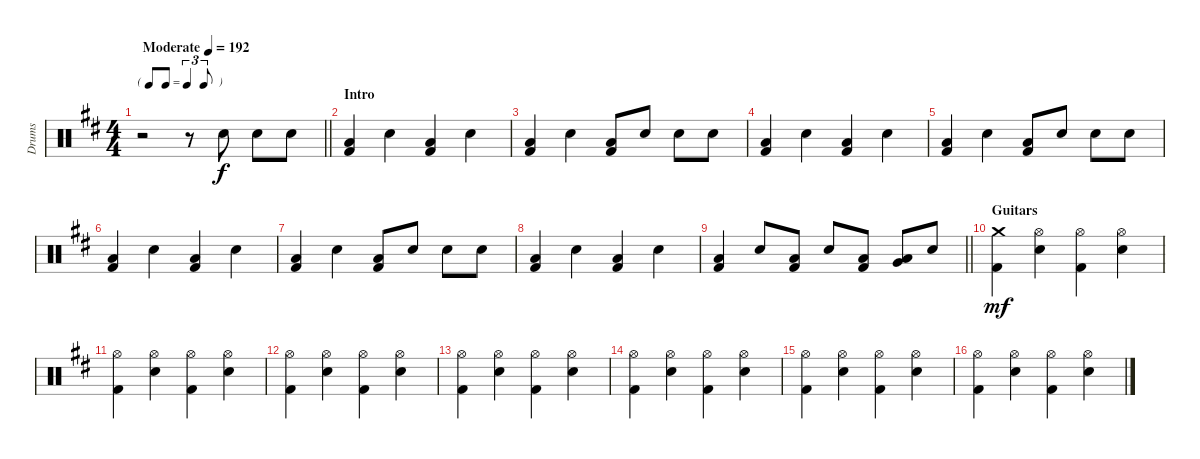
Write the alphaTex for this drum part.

\track ("Drums" "Drums") {instrument percussion}
\staff {score}
\articulation defaults
\ts (4 4)
\tf triplet8th
\tempo (192 "Moderate")
\clef neutral
\barLineRight lightlight
\ks bminor
r.2{dy f} r.8 "Snare (hit) 2".8 "Snare (hit) 2".8 "Snare (hit) 2".8 |
\section ("" "Intro")
("Low Floor Tom (hit)" "Kick (hit) 2").4 "Snare (hit) 2".4 ("Low Floor Tom (hit)" "Kick (hit) 2").4 "Snare (hit) 2".4 |
("Low Floor Tom (hit)" "Kick (hit) 2").4 "Snare (hit) 2".4 ("Low Floor Tom (hit)" "Kick (hit) 2").8 "Snare (hit) 2".8 "Snare (hit) 2".8 "Snare (hit) 2".8 |
("Low Floor Tom (hit)" "Kick (hit) 2").4 "Snare (hit) 2".4 ("Low Floor Tom (hit)" "Kick (hit) 2").4 "Snare (hit) 2".4 |
("Low Floor Tom (hit)" "Kick (hit) 2").4 "Snare (hit) 2".4 ("Low Floor Tom (hit)" "Kick (hit) 2").8 "Snare (hit) 2".8 "Snare (hit) 2".8 "Snare (hit) 2".8 |
("Low Floor Tom (hit)" "Kick (hit) 2").4 "Snare (hit) 2".4 ("Low Floor Tom (hit)" "Kick (hit) 2").4 "Snare (hit) 2".4 |
("Low Floor Tom (hit)" "Kick (hit) 2").4 "Snare (hit) 2".4 ("Low Floor Tom (hit)" "Kick (hit) 2").8 "Snare (hit) 2".8 "Snare (hit) 2".8 "Snare (hit) 2".8 |
("Low Floor Tom (hit)" "Kick (hit) 2").4 "Snare (hit) 2".4 ("Low Floor Tom (hit)" "Kick (hit) 2").4 "Snare (hit) 2".4 |
\barLineRight lightlight
("Low Floor Tom (hit)" "Kick (hit) 2").4 "Snare (hit) 2".8 ("Low Floor Tom (hit)" "Kick (hit) 2").8 "Snare (hit) 2".8 ("Low Floor Tom (hit)" "Kick (hit) 2").8 ("Very Low Tom (hit)" "Low Floor Tom (hit)").8 "Snare (hit) 2".8 |
\section ("" "Guitars")
("Crash medium (hit)" "Kick (hit) 2").4{dy mf} ("Hi-Hat (open)" "Snare (hit) 2").4 ("Hi-Hat (open)" "Kick (hit) 2").4 ("Hi-Hat (open)" "Snare (hit) 2").4 |
("Hi-Hat (open)" "Kick (hit) 2").4 ("Hi-Hat (open)" "Snare (hit) 2").4 ("Hi-Hat (open)" "Kick (hit) 2").4 ("Hi-Hat (open)" "Snare (hit) 2").4 |
("Hi-Hat (open)" "Kick (hit) 2").4 ("Hi-Hat (open)" "Snare (hit) 2").4 ("Hi-Hat (open)" "Kick (hit) 2").4 ("Hi-Hat (open)" "Snare (hit) 2").4 |
("Hi-Hat (open)" "Kick (hit) 2").4 ("Hi-Hat (open)" "Snare (hit) 2").4 ("Hi-Hat (open)" "Kick (hit) 2").4 ("Hi-Hat (open)" "Snare (hit) 2").4 |
("Hi-Hat (open)" "Kick (hit) 2").4 ("Hi-Hat (open)" "Snare (hit) 2").4 ("Hi-Hat (open)" "Kick (hit) 2").4 ("Hi-Hat (open)" "Snare (hit) 2").4 |
("Hi-Hat (open)" "Kick (hit) 2").4 ("Hi-Hat (open)" "Snare (hit) 2").4 ("Hi-Hat (open)" "Kick (hit) 2").4 ("Hi-Hat (open)" "Snare (hit) 2").4 |
("Hi-Hat (open)" "Kick (hit) 2").4 ("Hi-Hat (open)" "Snare (hit) 2").4 ("Hi-Hat (open)" "Kick (hit) 2").4 ("Hi-Hat (open)" "Snare (hit) 2").4
